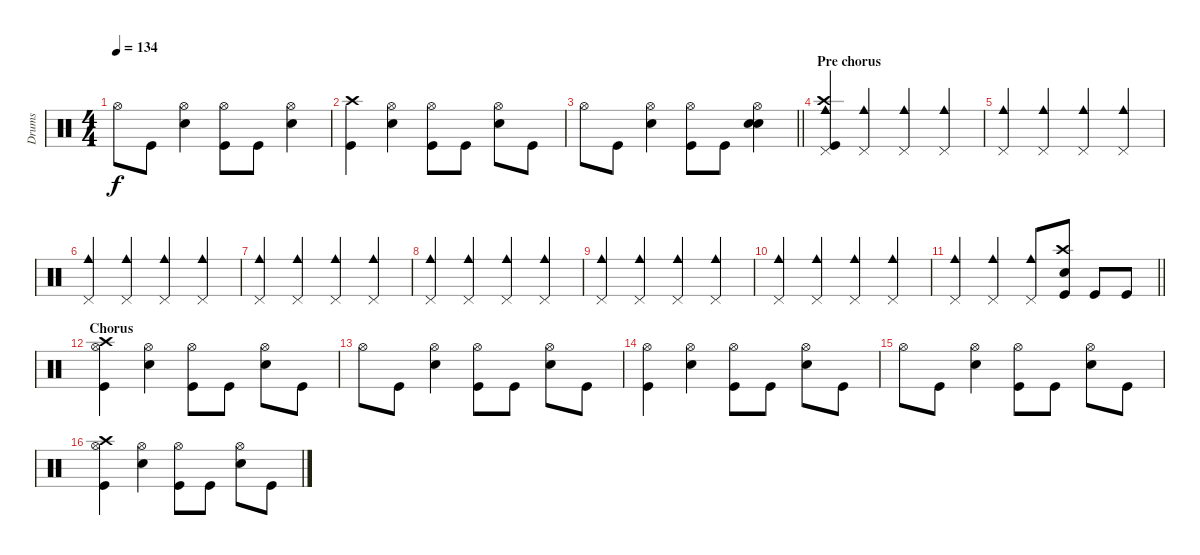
\track ("Drums" "Drums") {instrument percussion}
\staff {score}
\articulation defaults
\ts (4 4)
\tempo 134
\clef neutral
\ks c "Hi-Hat (open)".8{dy f} "Kick (hit)".8
("Hi-Hat (open)" "Snare (hit) 2").4 ("Hi-Hat (open)" "Kick (hit)").8 "Kick (hit)".8 ("Hi-Hat (open)" "Snare (hit) 2").4 |
("Crash high (hit)" "Kick (hit)").4 ("Hi-Hat (open)" "Snare (hit) 2").4 ("Hi-Hat (open)" "Kick (hit)").8 "Kick (hit)".8 ("Hi-Hat (open)" "Snare (hit) 2").8 "Kick (hit)".8 |
\barLineRight lightlight "Hi-Hat (open)".8 "Kick (hit)".8
("Hi-Hat (open)" "Snare (hit) 2").4 ("Hi-Hat (open)" "Kick (hit)").8 "Kick (hit)".8 ("Hi-Hat (open)" "Electric Snare (hit)" "Snare (hit) 2").4 |
\section ("" "Pre chorus")
("Crash high (hit)" "Cowbell medium (hit)" "Pedal Hi-Hat (hit)" "Kick (hit)").4 ("Cowbell medium (hit)" "Pedal Hi-Hat (hit)").4 ("Cowbell medium (hit)" "Pedal Hi-Hat (hit)").4 ("Cowbell medium (hit)" "Pedal Hi-Hat (hit)").4 |
("Cowbell medium (hit)" "Pedal Hi-Hat (hit)").4 ("Cowbell medium (hit)" "Pedal Hi-Hat (hit)").4 ("Cowbell medium (hit)" "Pedal Hi-Hat (hit)").4 ("Cowbell medium (hit)" "Pedal Hi-Hat (hit)").4 |
("Cowbell medium (hit)" "Pedal Hi-Hat (hit)").4 ("Cowbell medium (hit)" "Pedal Hi-Hat (hit)").4 ("Cowbell medium (hit)" "Pedal Hi-Hat (hit)").4 ("Cowbell medium (hit)" "Pedal Hi-Hat (hit)").4 |
("Cowbell medium (hit)" "Pedal Hi-Hat (hit)").4 ("Cowbell medium (hit)" "Pedal Hi-Hat (hit)").4 ("Cowbell medium (hit)" "Pedal Hi-Hat (hit)").4 ("Cowbell medium (hit)" "Pedal Hi-Hat (hit)").4 |
("Cowbell medium (hit)" "Pedal Hi-Hat (hit)").4 ("Cowbell medium (hit)" "Pedal Hi-Hat (hit)").4 ("Cowbell medium (hit)" "Pedal Hi-Hat (hit)").4 ("Cowbell medium (hit)" "Pedal Hi-Hat (hit)").4 |
("Cowbell medium (hit)" "Pedal Hi-Hat (hit)").4 ("Cowbell medium (hit)" "Pedal Hi-Hat (hit)").4 ("Cowbell medium (hit)" "Pedal Hi-Hat (hit)").4 ("Cowbell medium (hit)" "Pedal Hi-Hat (hit)").4 |
("Cowbell medium (hit)" "Pedal Hi-Hat (hit)").4 ("Cowbell medium (hit)" "Pedal Hi-Hat (hit)").4 ("Cowbell medium (hit)" "Pedal Hi-Hat (hit)").4 ("Cowbell medium (hit)" "Pedal Hi-Hat (hit)").4 |
\barLineRight lightlight
("Cowbell medium (hit)" "Pedal Hi-Hat (hit)").4 ("Cowbell medium (hit)" "Pedal Hi-Hat (hit)").4 ("Cowbell medium (hit)" "Pedal Hi-Hat (hit)").8 ("Crash high (hit)" "Electric Snare (hit)" "Kick (hit)").8 "Kick (hit)".8 "Kick (hit)".8 |
\section ("" "Chorus")
("Crash high (hit)" "Hi-Hat (open)" "Kick (hit)").4 ("Hi-Hat (open)" "Snare (hit) 2").4 ("Hi-Hat (open)" "Kick (hit)").8 "Kick (hit)".8 ("Hi-Hat (open)" "Snare (hit) 2").8 "Kick (hit)".8 |
"Hi-Hat (open)".8 "Kick (hit)".8 ("Hi-Hat (open)" "Snare (hit) 2").4 ("Hi-Hat (open)" "Kick (hit)").8 "Kick (hit)".8 ("Hi-Hat (open)" "Snare (hit) 2").8 "Kick (hit)".8 |
("Hi-Hat (open)" "Kick (hit)").4 ("Hi-Hat (open)" "Snare (hit) 2").4 ("Hi-Hat (open)" "Kick (hit)").8 "Kick (hit)".8 ("Hi-Hat (open)" "Snare (hit) 2").8 "Kick (hit)".8 |
"Hi-Hat (open)".8 "Kick (hit)".8 ("Hi-Hat (open)" "Snare (hit) 2").4 ("Hi-Hat (open)" "Kick (hit)").8 "Kick (hit)".8 ("Hi-Hat (open)" "Snare (hit) 2").8 "Kick (hit)".8 |
("Crash high (hit)" "Hi-Hat (open)" "Kick (hit)").4 ("Hi-Hat (open)" "Snare (hit) 2").4 ("Hi-Hat (open)" "Kick (hit)").8 "Kick (hit)".8 ("Hi-Hat (open)" "Snare (hit) 2").8 "Kick (hit)".8
